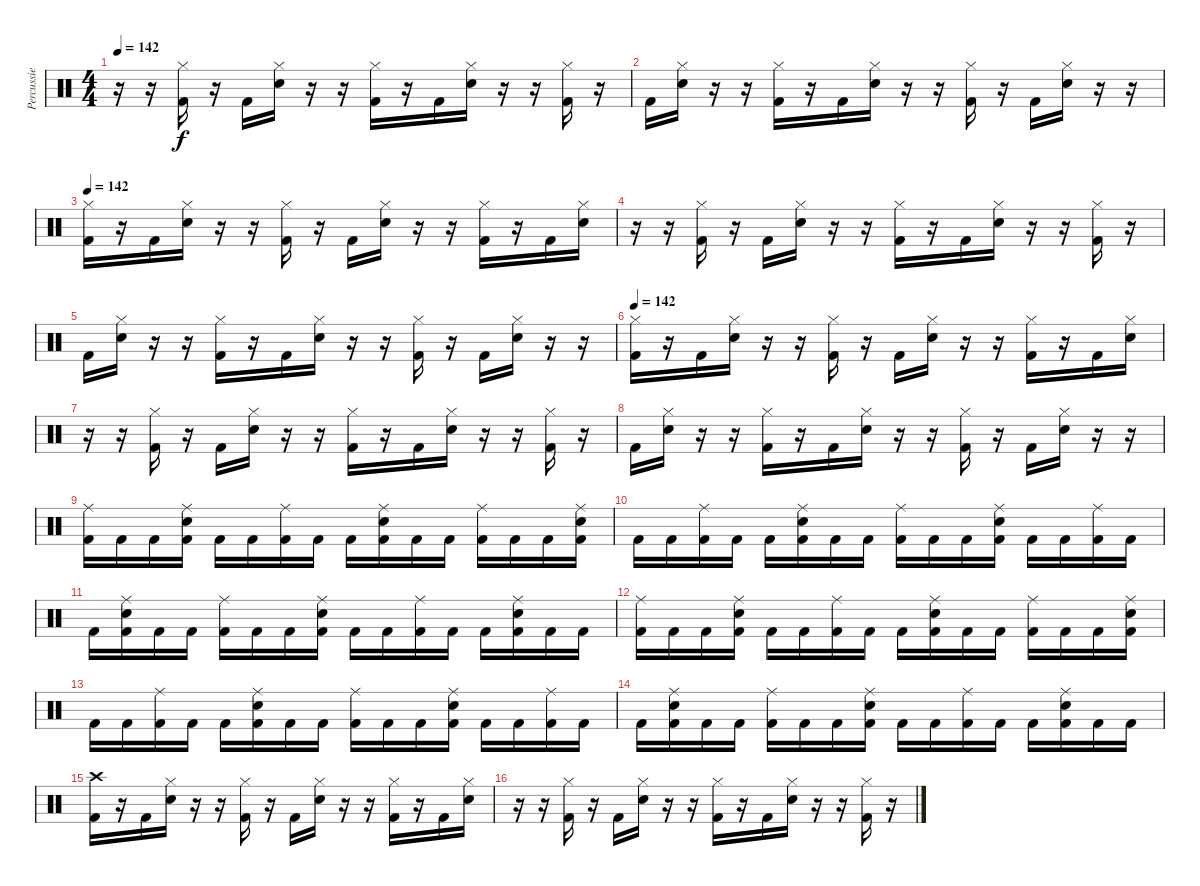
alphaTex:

\track ("Percussie" "Percussie") {instrument percussion}
\staff {score}
\articulation defaults
\ts (4 4)
\tempo 142
\clef neutral
\ks c
r.16{dy f} r.16 ("Hi-Hat (closed)" "Kick (hit) 2").16 r.16 "Kick (hit) 2".16 ("Hi-Hat (closed)" "Snare (hit) 2").16 r.16 r.16 ("Hi-Hat (closed)" "Kick (hit) 2").16 r.16 "Kick (hit) 2".16 ("Hi-Hat (closed)" "Snare (hit) 2").16 r.16 r.16 ("Hi-Hat (closed)" "Kick (hit) 2").16 r.16 |
"Kick (hit) 2".16 ("Hi-Hat (closed)" "Snare (hit) 2").16 r.16 r.16 ("Hi-Hat (closed)" "Kick (hit) 2").16 r.16 "Kick (hit) 2".16 ("Hi-Hat (closed)" "Snare (hit) 2").16 r.16 r.16 ("Hi-Hat (closed)" "Kick (hit) 2").16 r.16 "Kick (hit) 2".16 ("Hi-Hat (closed)" "Snare (hit) 2").16 r.16 r.16 |
\tempo 142
("Hi-Hat (closed)" "Kick (hit) 2").16 r.16 "Kick (hit) 2".16 ("Hi-Hat (closed)" "Snare (hit) 2").16 r.16 r.16 ("Hi-Hat (closed)" "Kick (hit) 2").16 r.16 "Kick (hit) 2".16 ("Hi-Hat (closed)" "Snare (hit) 2").16 r.16 r.16 ("Hi-Hat (closed)" "Kick (hit) 2").16 r.16 "Kick (hit) 2".16 ("Hi-Hat (closed)" "Snare (hit) 2").16 |
r.16 r.16 ("Hi-Hat (closed)" "Kick (hit) 2").16 r.16 "Kick (hit) 2".16 ("Hi-Hat (closed)" "Snare (hit) 2").16 r.16 r.16 ("Hi-Hat (closed)" "Kick (hit) 2").16 r.16 "Kick (hit) 2".16 ("Hi-Hat (closed)" "Snare (hit) 2").16 r.16 r.16 ("Hi-Hat (closed)" "Kick (hit) 2").16 r.16 |
"Kick (hit) 2".16 ("Hi-Hat (closed)" "Snare (hit) 2").16 r.16 r.16 ("Hi-Hat (closed)" "Kick (hit) 2").16 r.16 "Kick (hit) 2".16 ("Hi-Hat (closed)" "Snare (hit) 2").16 r.16 r.16 ("Hi-Hat (closed)" "Kick (hit) 2").16 r.16 "Kick (hit) 2".16 ("Hi-Hat (closed)" "Snare (hit) 2").16 r.16 r.16 |
\tempo 142
("Hi-Hat (closed)" "Kick (hit) 2").16 r.16 "Kick (hit) 2".16 ("Hi-Hat (closed)" "Snare (hit) 2").16 r.16 r.16 ("Hi-Hat (closed)" "Kick (hit) 2").16 r.16 "Kick (hit) 2".16 ("Hi-Hat (closed)" "Snare (hit) 2").16 r.16 r.16 ("Hi-Hat (closed)" "Kick (hit) 2").16 r.16 "Kick (hit) 2".16 ("Hi-Hat (closed)" "Snare (hit) 2").16 |
r.16 r.16 ("Hi-Hat (closed)" "Kick (hit) 2").16 r.16 "Kick (hit) 2".16 ("Hi-Hat (closed)" "Snare (hit) 2").16 r.16 r.16 ("Hi-Hat (closed)" "Kick (hit) 2").16 r.16 "Kick (hit) 2".16 ("Hi-Hat (closed)" "Snare (hit) 2").16 r.16 r.16 ("Hi-Hat (closed)" "Kick (hit) 2").16 r.16 |
"Kick (hit) 2".16 ("Hi-Hat (closed)" "Snare (hit) 2").16 r.16 r.16 ("Hi-Hat (closed)" "Kick (hit) 2").16 r.16 "Kick (hit) 2".16 ("Hi-Hat (closed)" "Snare (hit) 2").16 r.16 r.16 ("Hi-Hat (closed)" "Kick (hit) 2").16 r.16 "Kick (hit) 2".16 ("Hi-Hat (closed)" "Snare (hit) 2").16 r.16 r.16 |
("Ride (middle)" "Kick (hit) 2").16 "Kick (hit) 2".16 "Kick (hit) 2".16 ("Ride (middle)" "Snare (hit) 2" "Kick (hit) 2").16 "Kick (hit) 2".16 "Kick (hit) 2".16 ("Ride (middle)" "Kick (hit) 2").16 "Kick (hit) 2".16 "Kick (hit) 2".16 ("Ride (middle)" "Snare (hit) 2" "Kick (hit) 2").16 "Kick (hit) 2".16 "Kick (hit) 2".16 ("Ride (middle)" "Kick (hit) 2").16 "Kick (hit) 2".16 "Kick (hit) 2".16 ("Ride (middle)" "Snare (hit) 2" "Kick (hit) 2").16 |
"Kick (hit) 2".16 "Kick (hit) 2".16 ("Ride (middle)" "Kick (hit) 2").16 "Kick (hit) 2".16 "Kick (hit) 2".16 ("Ride (middle)" "Snare (hit) 2" "Kick (hit) 2").16 "Kick (hit) 2".16 "Kick (hit) 2".16 ("Ride (middle)" "Kick (hit) 2").16 "Kick (hit) 2".16 "Kick (hit) 2".16 ("Ride (middle)" "Snare (hit) 2" "Kick (hit) 2").16 "Kick (hit) 2".16 "Kick (hit) 2".16 ("Ride (middle)" "Kick (hit) 2").16 "Kick (hit) 2".16 |
"Kick (hit) 2".16 ("Ride (middle)" "Snare (hit) 2" "Kick (hit) 2").16 "Kick (hit) 2".16 "Kick (hit) 2".16 ("Ride (middle)" "Kick (hit) 2").16 "Kick (hit) 2".16 "Kick (hit) 2".16 ("Ride (middle)" "Snare (hit) 2" "Kick (hit) 2").16 "Kick (hit) 2".16 "Kick (hit) 2".16 ("Ride (middle)" "Kick (hit) 2").16 "Kick (hit) 2".16 "Kick (hit) 2".16 ("Ride (middle)" "Snare (hit) 2" "Kick (hit) 2").16 "Kick (hit) 2".16 "Kick (hit) 2".16 |
("Ride (middle)" "Kick (hit) 2").16 "Kick (hit) 2".16 "Kick (hit) 2".16 ("Ride (middle)" "Snare (hit) 2" "Kick (hit) 2").16 "Kick (hit) 2".16 "Kick (hit) 2".16 ("Ride (middle)" "Kick (hit) 2").16 "Kick (hit) 2".16 "Kick (hit) 2".16 ("Ride (middle)" "Snare (hit) 2" "Kick (hit) 2").16 "Kick (hit) 2".16 "Kick (hit) 2".16 ("Ride (middle)" "Kick (hit) 2").16 "Kick (hit) 2".16 "Kick (hit) 2".16 ("Ride (middle)" "Snare (hit) 2" "Kick (hit) 2").16 |
"Kick (hit) 2".16 "Kick (hit) 2".16 ("Ride (middle)" "Kick (hit) 2").16 "Kick (hit) 2".16 "Kick (hit) 2".16 ("Ride (middle)" "Snare (hit) 2" "Kick (hit) 2").16 "Kick (hit) 2".16 "Kick (hit) 2".16 ("Ride (middle)" "Kick (hit) 2").16 "Kick (hit) 2".16 "Kick (hit) 2".16 ("Ride (middle)" "Snare (hit) 2" "Kick (hit) 2").16 "Kick (hit) 2".16 "Kick (hit) 2".16 ("Ride (middle)" "Kick (hit) 2").16 "Kick (hit) 2".16 |
"Kick (hit) 2".16 ("Ride (middle)" "Snare (hit) 2" "Kick (hit) 2").16 "Kick (hit) 2".16 "Kick (hit) 2".16 ("Ride (middle)" "Kick (hit) 2").16 "Kick (hit) 2".16 "Kick (hit) 2".16 ("Ride (middle)" "Snare (hit) 2" "Kick (hit) 2").16 "Kick (hit) 2".16 "Kick (hit) 2".16 ("Ride (middle)" "Kick (hit) 2").16 "Kick (hit) 2".16 "Kick (hit) 2".16 ("Ride (middle)" "Snare (hit) 2" "Kick (hit) 2").16 "Kick (hit) 2".16 "Kick (hit) 2".16 |
("Crash high (hit)" "Kick (hit) 2").16 r.16 "Kick (hit) 2".16 ("Hi-Hat (closed)" "Snare (hit) 2").16 r.16 r.16 ("Hi-Hat (closed)" "Kick (hit) 2").16 r.16 "Kick (hit) 2".16 ("Hi-Hat (closed)" "Snare (hit) 2").16 r.16 r.16 ("Hi-Hat (closed)" "Kick (hit) 2").16 r.16 "Kick (hit) 2".16 ("Hi-Hat (closed)" "Snare (hit) 2").16 |
r.16 r.16 ("Hi-Hat (closed)" "Kick (hit) 2").16 r.16 "Kick (hit) 2".16 ("Hi-Hat (closed)" "Snare (hit) 2").16 r.16 r.16 ("Hi-Hat (closed)" "Kick (hit) 2").16 r.16 "Kick (hit) 2".16 ("Hi-Hat (closed)" "Snare (hit) 2").16 r.16 r.16 ("Hi-Hat (closed)" "Kick (hit) 2").16 r.16
